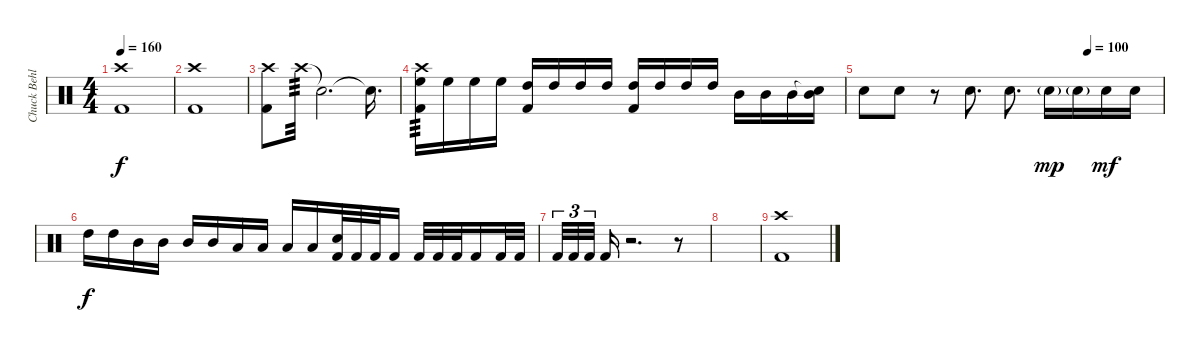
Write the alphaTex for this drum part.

\track ("Chuck Behler" "Chuck Behl") {instrument percussion}
\staff {score}
\articulation defaults
\ts (4 4)
\tempo 160
\clef neutral
\ks c
("Crash high (hit)" "Kick (hit) 2").1{dy f} |
("Crash high (hit)" "Kick (hit) 2").1 |
("Crash high (hit)" "Kick (hit) 2").8 "Crash high (hit)".32{tp 3 volume 3} "Snare (hit)"{t}.2{d volume 14} "Snare (hit)"{t}.16{d} |
("Crash high (hit)" "High Floor Tom (hit)" "Kick (hit) 2").16{tp 3 volume 3} "High Floor Tom (hit)".16 "High Floor Tom (hit)".16 "High Floor Tom (hit)".16 ("High Tom (hit)" "Kick (hit) 2").16 "High Tom (hit)".16 "High Tom (hit)".16 "High Tom (hit)".16 ("High Tom (hit)" "Kick (hit) 2").16 "High Tom (hit)".16 "High Tom (hit)".16 "High Tom (hit)".16 "Mid Tom (hit)".16 "Mid Tom (hit)".16 "Mid Tom (hit)".16 ("Snare (hit)"{t} "Mid Tom (hit)").16 |
\tempo (100 0.75)
"Snare (hit) 2".8 "Snare (hit) 2".8 r.8 "Snare (hit) 2".8{d} "Snare (hit) 2".8{d} "Snare (hit) 2"{g}.16{dy mp} "Snare (hit) 2"{g}.16 "Snare (hit) 2".16{dy mf} "Snare (hit) 2".16 |
"High Tom (hit)".16{dy f} "High Tom (hit)".16 "Mid Tom (hit)".16 "Mid Tom (hit)".16 "Mid Tom (hit)".16 "Mid Tom (hit)".16 "Low Tom (hit)".16 "Low Tom (hit)".16 "Low Tom (hit)".16 "Low Tom (hit)".16 ("Snare (hit) 2" "Kick (hit) 2").32 "Kick (hit) 2".32 "Kick (hit) 2".32 "Kick (hit) 2".16 "Kick (hit) 2".32 "Kick (hit) 2".32 "Kick (hit) 2".32 "Kick (hit) 2".16 "Kick (hit) 2".32 "Kick (hit) 2".32 |
"Kick (hit) 2".32{tu (3 2)} "Kick (hit) 2".32{tu (3 2)} "Kick (hit) 2".32{tu (3 2) beam splitsecondary} "Kick (hit) 2".16 r.2{d} r.8 |
|
("Crash high (hit)" "Kick (hit) 2").1
